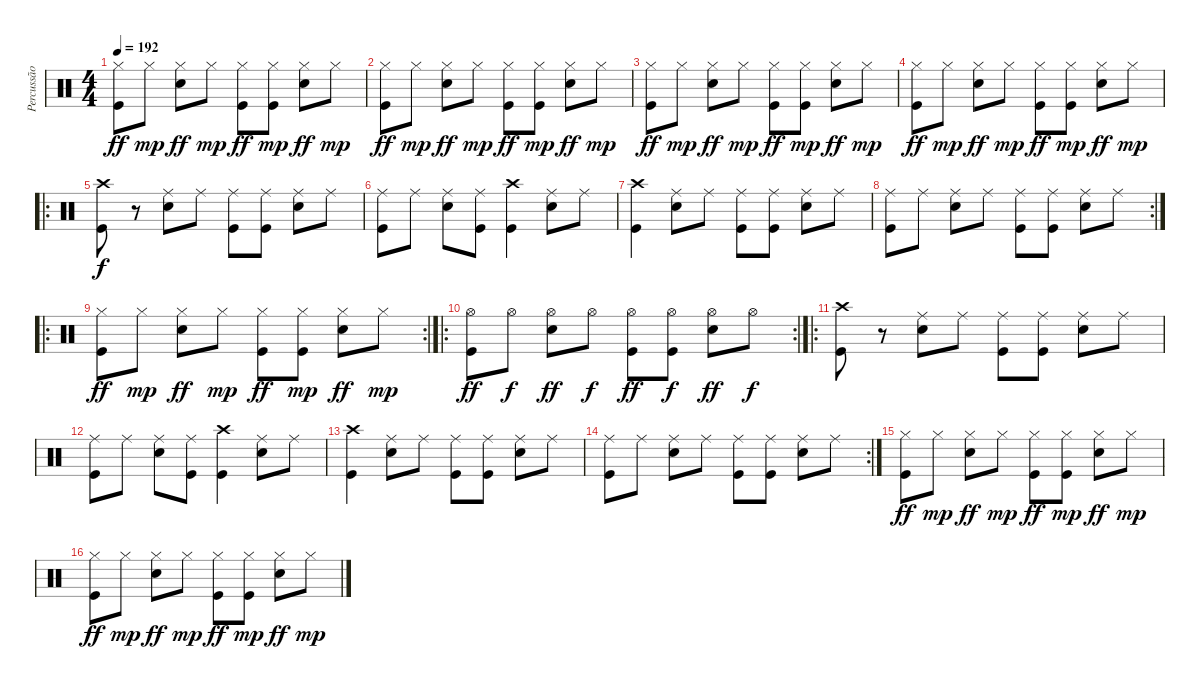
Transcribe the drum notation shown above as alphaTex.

\track ("Percussão" "Percussão") {instrument percussion}
\staff {score}
\articulation defaults
\ts (4 4)
\tempo 192
\clef neutral
\ks c
("Hi-Hat (closed)" "Kick (hit)").8{dy ff} "Hi-Hat (closed)".8{dy mp} ("Hi-Hat (closed)" "Snare (hit) 2").8{dy ff} "Hi-Hat (closed)".8{dy mp} ("Hi-Hat (closed)" "Kick (hit)").8{dy ff} ("Hi-Hat (closed)" "Kick (hit)").8{dy mp} ("Hi-Hat (closed)" "Snare (hit) 2").8{dy ff} "Hi-Hat (closed)".8{dy mp} |
("Hi-Hat (closed)" "Kick (hit)").8{dy ff} "Hi-Hat (closed)".8{dy mp} ("Hi-Hat (closed)" "Snare (hit) 2").8{dy ff} "Hi-Hat (closed)".8{dy mp} ("Hi-Hat (closed)" "Kick (hit)").8{dy ff} ("Hi-Hat (closed)" "Kick (hit)").8{dy mp} ("Hi-Hat (closed)" "Snare (hit) 2").8{dy ff} "Hi-Hat (closed)".8{dy mp} |
("Hi-Hat (closed)" "Kick (hit)").8{dy ff} "Hi-Hat (closed)".8{dy mp} ("Hi-Hat (closed)" "Snare (hit) 2").8{dy ff} "Hi-Hat (closed)".8{dy mp} ("Hi-Hat (closed)" "Kick (hit)").8{dy ff} ("Hi-Hat (closed)" "Kick (hit)").8{dy mp} ("Hi-Hat (closed)" "Snare (hit) 2").8{dy ff} "Hi-Hat (closed)".8{dy mp} |
("Hi-Hat (closed)" "Kick (hit)").8{dy ff} "Hi-Hat (closed)".8{dy mp} ("Hi-Hat (closed)" "Snare (hit) 2").8{dy ff} "Hi-Hat (closed)".8{dy mp} ("Hi-Hat (closed)" "Kick (hit)").8{dy ff} ("Hi-Hat (closed)" "Kick (hit)").8{dy mp} ("Hi-Hat (closed)" "Snare (hit) 2").8{dy ff} "Hi-Hat (closed)".8{dy mp} |
\ro
("Crash high (hit)" "Kick (hit)").8{dy f} r.8 ("Ride (middle)" "Snare (hit) 2").8 "Ride (middle)".8 ("Ride (middle)" "Kick (hit)").8 ("Ride (middle)" "Kick (hit)").8 ("Ride (middle)" "Snare (hit) 2").8 "Ride (middle)".8 |
("Ride (middle)" "Kick (hit)").8 "Ride (middle)".8 ("Ride (middle)" "Snare (hit) 2").8 ("Ride (middle)" "Kick (hit)").8 ("Crash high (hit)" "Kick (hit)").4 ("Ride (middle)" "Snare (hit) 2").8 "Ride (middle)".8 |
("Crash high (hit)" "Kick (hit)").4 ("Ride (middle)" "Snare (hit) 2").8 "Ride (middle)".8 ("Ride (middle)" "Kick (hit)").8 ("Ride (middle)" "Kick (hit)").8 ("Ride (middle)" "Snare (hit) 2").8 "Ride (middle)".8 |
\rc 2
("Ride (middle)" "Kick (hit)").8 "Ride (middle)".8 ("Ride (middle)" "Snare (hit) 2").8 "Ride (middle)".8 ("Ride (middle)" "Kick (hit)").8 ("Ride (middle)" "Kick (hit)").8 ("Ride (middle)" "Snare (hit) 2").8 "Ride (middle)".8 |
\ro
\rc 2
("Hi-Hat (closed)" "Kick (hit)").8{dy ff} "Hi-Hat (closed)".8{dy mp} ("Hi-Hat (closed)" "Snare (hit) 2").8{dy ff} "Hi-Hat (closed)".8{dy mp} ("Hi-Hat (closed)" "Kick (hit)").8{dy ff} ("Hi-Hat (closed)" "Kick (hit)").8{dy mp} ("Hi-Hat (closed)" "Snare (hit) 2").8{dy ff} "Hi-Hat (closed)".8{dy mp} |
\ro
\rc 2
("Hi-Hat (open)" "Kick (hit)").8{dy ff} "Hi-Hat (open)".8{dy f} ("Hi-Hat (open)" "Snare (hit) 2").8{dy ff} "Hi-Hat (open)".8{dy f} ("Hi-Hat (open)" "Kick (hit)").8{dy ff} ("Hi-Hat (open)" "Kick (hit)").8{dy f} ("Hi-Hat (open)" "Snare (hit) 2").8{dy ff} "Hi-Hat (open)".8{dy f} |
\ro
("Crash high (hit)" "Kick (hit)").8 r.8 ("Ride (middle)" "Snare (hit) 2").8 "Ride (middle)".8 ("Ride (middle)" "Kick (hit)").8 ("Ride (middle)" "Kick (hit)").8 ("Ride (middle)" "Snare (hit) 2").8 "Ride (middle)".8 |
("Ride (middle)" "Kick (hit)").8 "Ride (middle)".8 ("Ride (middle)" "Snare (hit) 2").8 ("Ride (middle)" "Kick (hit)").8 ("Crash high (hit)" "Kick (hit)").4 ("Ride (middle)" "Snare (hit) 2").8 "Ride (middle)".8 |
("Crash high (hit)" "Kick (hit)").4 ("Ride (middle)" "Snare (hit) 2").8 "Ride (middle)".8 ("Ride (middle)" "Kick (hit)").8 ("Ride (middle)" "Kick (hit)").8 ("Ride (middle)" "Snare (hit) 2").8 "Ride (middle)".8 |
\rc 2
("Ride (middle)" "Kick (hit)").8 "Ride (middle)".8 ("Ride (middle)" "Snare (hit) 2").8 "Ride (middle)".8 ("Ride (middle)" "Kick (hit)").8 ("Ride (middle)" "Kick (hit)").8 ("Ride (middle)" "Snare (hit) 2").8 "Ride (middle)".8 |
("Hi-Hat (closed)" "Kick (hit)").8{dy ff} "Hi-Hat (closed)".8{dy mp} ("Hi-Hat (closed)" "Snare (hit) 2").8{dy ff} "Hi-Hat (closed)".8{dy mp} ("Hi-Hat (closed)" "Kick (hit)").8{dy ff} ("Hi-Hat (closed)" "Kick (hit)").8{dy mp} ("Hi-Hat (closed)" "Snare (hit) 2").8{dy ff} "Hi-Hat (closed)".8{dy mp} |
("Hi-Hat (closed)" "Kick (hit)").8{dy ff} "Hi-Hat (closed)".8{dy mp} ("Hi-Hat (closed)" "Snare (hit) 2").8{dy ff} "Hi-Hat (closed)".8{dy mp} ("Hi-Hat (closed)" "Kick (hit)").8{dy ff} ("Hi-Hat (closed)" "Kick (hit)").8{dy mp} ("Hi-Hat (closed)" "Snare (hit) 2").8{dy ff} "Hi-Hat (closed)".8{dy mp}
